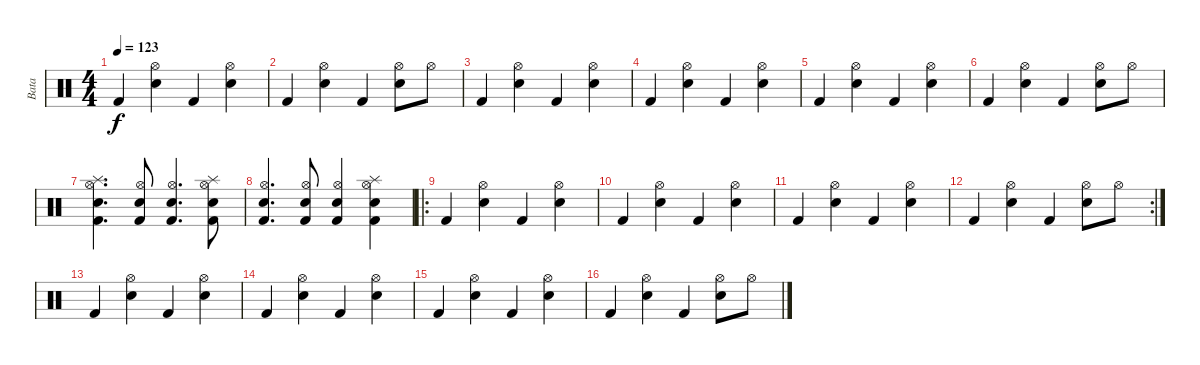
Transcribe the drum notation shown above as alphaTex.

\track ("Bata" "Bata") {instrument percussion}
\staff {score}
\articulation defaults
\ts (4 4)
\tempo 123
\clef neutral
\ks c "Kick (hit) 2".4{dy f}
("Hi-Hat (open)" "Snare (hit) 2").4 "Kick (hit) 2".4 ("Hi-Hat (open)" "Snare (hit) 2").4 |
"Kick (hit) 2".4 ("Hi-Hat (open)" "Snare (hit) 2").4 "Kick (hit) 2".4 ("Hi-Hat (open)" "Snare (hit) 2").8 "Hi-Hat (open)".8 |
"Kick (hit) 2".4 ("Hi-Hat (open)" "Snare (hit) 2").4 "Kick (hit) 2".4 ("Hi-Hat (open)" "Snare (hit) 2").4 |
"Kick (hit) 2".4 ("Hi-Hat (open)" "Snare (hit) 2").4 "Kick (hit) 2".4 ("Hi-Hat (open)" "Snare (hit) 2").4 |
"Kick (hit) 2".4 ("Hi-Hat (open)" "Snare (hit) 2").4 "Kick (hit) 2".4 ("Hi-Hat (open)" "Snare (hit) 2").4 |
"Kick (hit) 2".4 ("Hi-Hat (open)" "Snare (hit) 2").4 "Kick (hit) 2".4 ("Hi-Hat (open)" "Snare (hit) 2").8 "Hi-Hat (open)".8 |
("Kick (hit) 2" "Snare (hit) 2" "Hi-Hat (open)" "Splash (hit)").4{d} ("Snare (hit) 2" "Hi-Hat (open)" "Kick (hit) 2").8 ("Snare (hit) 2" "Hi-Hat (open)" "Kick (hit) 2").4{d} ("Splash (hit)" "Snare (hit) 2" "Hi-Hat (open)" "Kick (hit) 2").8 |
("Snare (hit) 2" "Hi-Hat (open)" "Kick (hit) 2").4{d} ("Snare (hit) 2" "Hi-Hat (open)" "Kick (hit) 2").8 ("Snare (hit) 2" "Hi-Hat (open)" "Kick (hit) 2").4 ("Splash (hit)" "Snare (hit) 2" "Hi-Hat (open)" "Kick (hit) 2").4 |
\ro "Kick (hit) 2".4
("Hi-Hat (open)" "Snare (hit) 2").4 "Kick (hit) 2".4 ("Hi-Hat (open)" "Snare (hit) 2").4 |
"Kick (hit) 2".4 ("Hi-Hat (open)" "Snare (hit) 2").4 "Kick (hit) 2".4 ("Hi-Hat (open)" "Snare (hit) 2").4 |
"Kick (hit) 2".4 ("Hi-Hat (open)" "Snare (hit) 2").4 "Kick (hit) 2".4 ("Hi-Hat (open)" "Snare (hit) 2").4 |
\rc 2 "Kick (hit) 2".4
("Hi-Hat (open)" "Snare (hit) 2").4 "Kick (hit) 2".4 ("Hi-Hat (open)" "Snare (hit) 2").8 "Hi-Hat (open)".8 |
"Kick (hit) 2".4 ("Hi-Hat (open)" "Snare (hit) 2").4 "Kick (hit) 2".4 ("Hi-Hat (open)" "Snare (hit) 2").4 |
"Kick (hit) 2".4 ("Hi-Hat (open)" "Snare (hit) 2").4 "Kick (hit) 2".4 ("Hi-Hat (open)" "Snare (hit) 2").4 |
"Kick (hit) 2".4 ("Hi-Hat (open)" "Snare (hit) 2").4 "Kick (hit) 2".4 ("Hi-Hat (open)" "Snare (hit) 2").4 |
"Kick (hit) 2".4 ("Hi-Hat (open)" "Snare (hit) 2").4 "Kick (hit) 2".4 ("Hi-Hat (open)" "Snare (hit) 2").8 "Hi-Hat (open)".8
